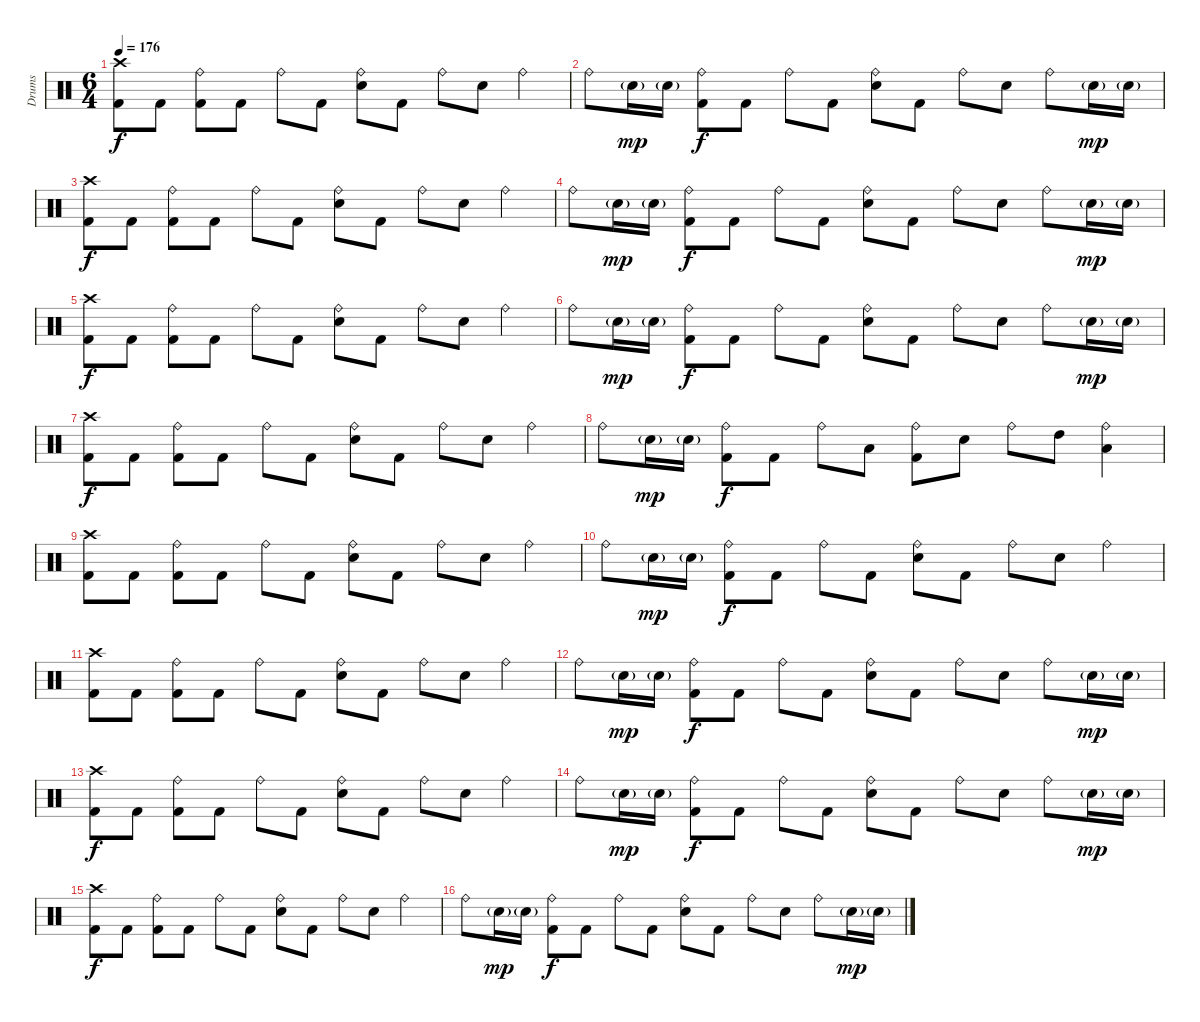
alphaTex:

\track ("Drums" "Drums") {instrument percussion}
\staff {score}
\articulation defaults
\ts (6 4)
\tempo 176
\clef neutral
\ks c
("Crash high (hit)" "Kick (hit) 2").8{dy f} "Kick (hit) 2".8 ("Ride (bell)" "Kick (hit) 2").8 "Kick (hit) 2".8 "Ride (bell)".8 "Kick (hit) 2".8 ("Ride (bell)" "Snare (hit) 2").8 "Kick (hit) 2".8 "Ride (bell)".8 "Snare (hit) 2".8 "Ride (bell)".4 |
"Ride (bell)".8 "Snare (hit) 2"{g}.16{dy mp} "Snare (hit) 2"{g}.16 ("Ride (bell)" "Kick (hit) 2").8{dy f} "Kick (hit) 2".8 "Ride (bell)".8 "Kick (hit) 2".8 ("Ride (bell)" "Snare (hit) 2").8 "Kick (hit) 2".8 "Ride (bell)".8 "Snare (hit) 2".8 "Ride (bell)".8 "Snare (hit) 2"{g}.16{dy mp} "Snare (hit) 2"{g}.16 |
("Crash high (hit)" "Kick (hit) 2").8{dy f} "Kick (hit) 2".8 ("Ride (bell)" "Kick (hit) 2").8 "Kick (hit) 2".8 "Ride (bell)".8 "Kick (hit) 2".8 ("Ride (bell)" "Snare (hit) 2").8 "Kick (hit) 2".8 "Ride (bell)".8 "Snare (hit) 2".8 "Ride (bell)".4 |
"Ride (bell)".8 "Snare (hit) 2"{g}.16{dy mp} "Snare (hit) 2"{g}.16 ("Ride (bell)" "Kick (hit) 2").8{dy f} "Kick (hit) 2".8 "Ride (bell)".8 "Kick (hit) 2".8 ("Ride (bell)" "Snare (hit) 2").8 "Kick (hit) 2".8 "Ride (bell)".8 "Snare (hit) 2".8 "Ride (bell)".8 "Snare (hit) 2"{g}.16{dy mp} "Snare (hit) 2"{g}.16 |
("Crash high (hit)" "Kick (hit) 2").8{dy f} "Kick (hit) 2".8 ("Ride (bell)" "Kick (hit) 2").8 "Kick (hit) 2".8 "Ride (bell)".8 "Kick (hit) 2".8 ("Ride (bell)" "Snare (hit) 2").8 "Kick (hit) 2".8 "Ride (bell)".8 "Snare (hit) 2".8 "Ride (bell)".4 |
"Ride (bell)".8 "Snare (hit) 2"{g}.16{dy mp} "Snare (hit) 2"{g}.16 ("Ride (bell)" "Kick (hit) 2").8{dy f} "Kick (hit) 2".8 "Ride (bell)".8 "Kick (hit) 2".8 ("Ride (bell)" "Snare (hit) 2").8 "Kick (hit) 2".8 "Ride (bell)".8 "Snare (hit) 2".8 "Ride (bell)".8 "Snare (hit) 2"{g}.16{dy mp} "Snare (hit) 2"{g}.16 |
("Crash high (hit)" "Kick (hit) 2").8{dy f} "Kick (hit) 2".8 ("Ride (bell)" "Kick (hit) 2").8 "Kick (hit) 2".8 "Ride (bell)".8 "Kick (hit) 2".8 ("Ride (bell)" "Snare (hit) 2").8 "Kick (hit) 2".8 "Ride (bell)".8 "Snare (hit) 2".8 "Ride (bell)".4 |
"Ride (bell)".8 "Snare (hit) 2"{g}.16{dy mp} "Snare (hit) 2"{g}.16 ("Ride (bell)" "Kick (hit) 2").8{dy f} "Kick (hit) 2".8 "Ride (bell)".8 "Low Tom (hit)".8 ("Ride (bell)" "Kick (hit) 2").8 "Snare (hit) 2".8 "Ride (bell)".8 "High Tom (hit)".8 ("Ride (bell)" "Low Tom (hit)").4 |
("Crash high (hit)" "Kick (hit) 2").8 "Kick (hit) 2".8 ("Ride (bell)" "Kick (hit) 2").8 "Kick (hit) 2".8 "Ride (bell)".8 "Kick (hit) 2".8 ("Ride (bell)" "Snare (hit) 2").8 "Kick (hit) 2".8 "Ride (bell)".8 "Snare (hit) 2".8 "Ride (bell)".4 |
"Ride (bell)".8 "Snare (hit) 2"{g}.16{dy mp} "Snare (hit) 2"{g}.16 ("Ride (bell)" "Kick (hit) 2").8{dy f} "Kick (hit) 2".8 "Ride (bell)".8 "Kick (hit) 2".8 ("Ride (bell)" "Snare (hit) 2").8 "Kick (hit) 2".8 "Ride (bell)".8 "Snare (hit) 2".8 "Ride (bell)".4 |
("Crash high (hit)" "Kick (hit) 2").8 "Kick (hit) 2".8 ("Ride (bell)" "Kick (hit) 2").8 "Kick (hit) 2".8 "Ride (bell)".8 "Kick (hit) 2".8 ("Ride (bell)" "Snare (hit) 2").8 "Kick (hit) 2".8 "Ride (bell)".8 "Snare (hit) 2".8 "Ride (bell)".4 |
"Ride (bell)".8 "Snare (hit) 2"{g}.16{dy mp} "Snare (hit) 2"{g}.16 ("Ride (bell)" "Kick (hit) 2").8{dy f} "Kick (hit) 2".8 "Ride (bell)".8 "Kick (hit) 2".8 ("Ride (bell)" "Snare (hit) 2").8 "Kick (hit) 2".8 "Ride (bell)".8 "Snare (hit) 2".8 "Ride (bell)".8 "Snare (hit) 2"{g}.16{dy mp} "Snare (hit) 2"{g}.16 |
("Crash high (hit)" "Kick (hit) 2").8{dy f} "Kick (hit) 2".8 ("Ride (bell)" "Kick (hit) 2").8 "Kick (hit) 2".8 "Ride (bell)".8 "Kick (hit) 2".8 ("Ride (bell)" "Snare (hit) 2").8 "Kick (hit) 2".8 "Ride (bell)".8 "Snare (hit) 2".8 "Ride (bell)".4 |
"Ride (bell)".8 "Snare (hit) 2"{g}.16{dy mp} "Snare (hit) 2"{g}.16 ("Ride (bell)" "Kick (hit) 2").8{dy f} "Kick (hit) 2".8 "Ride (bell)".8 "Kick (hit) 2".8 ("Ride (bell)" "Snare (hit) 2").8 "Kick (hit) 2".8 "Ride (bell)".8 "Snare (hit) 2".8 "Ride (bell)".8 "Snare (hit) 2"{g}.16{dy mp} "Snare (hit) 2"{g}.16 |
("Crash high (hit)" "Kick (hit) 2").8{dy f} "Kick (hit) 2".8 ("Ride (bell)" "Kick (hit) 2").8 "Kick (hit) 2".8 "Ride (bell)".8 "Kick (hit) 2".8 ("Ride (bell)" "Snare (hit) 2").8 "Kick (hit) 2".8 "Ride (bell)".8 "Snare (hit) 2".8 "Ride (bell)".4 |
"Ride (bell)".8 "Snare (hit) 2"{g}.16{dy mp} "Snare (hit) 2"{g}.16 ("Ride (bell)" "Kick (hit) 2").8{dy f} "Kick (hit) 2".8 "Ride (bell)".8 "Kick (hit) 2".8 ("Ride (bell)" "Snare (hit) 2").8 "Kick (hit) 2".8 "Ride (bell)".8 "Snare (hit) 2".8 "Ride (bell)".8 "Snare (hit) 2"{g}.16{dy mp} "Snare (hit) 2"{g}.16
